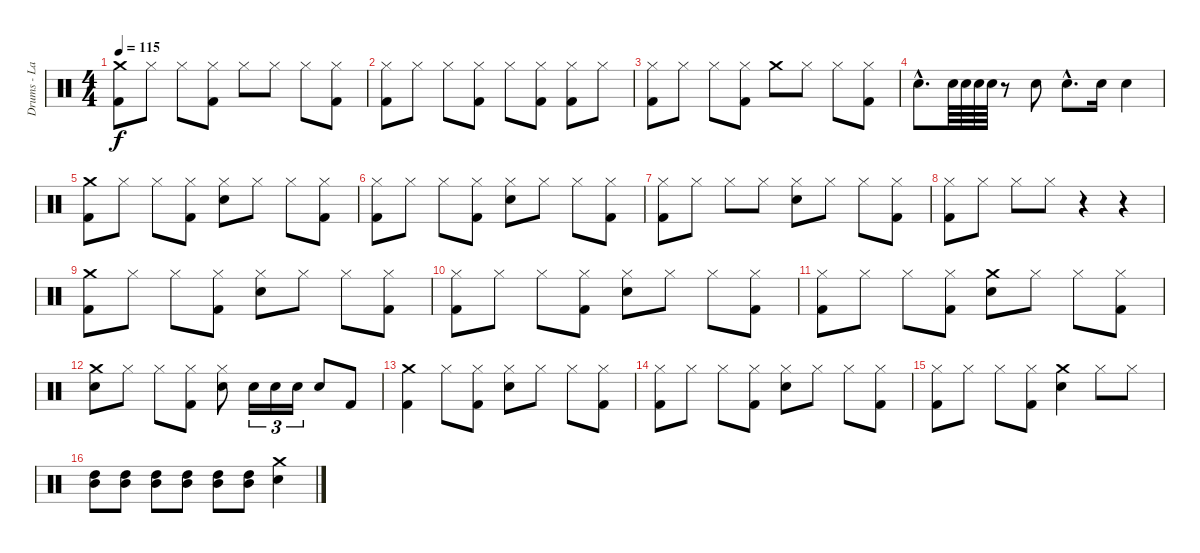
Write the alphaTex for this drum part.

\track ("Drums - Lars" "Drums - La") {instrument percussion}
\staff {score}
\articulation defaults
\ts (4 4)
\tempo 115
\clef neutral
\ks c
("Kick (hit) 2" "Crash medium (hit)").8{dy f} "Hi-Hat (closed)".8 "Hi-Hat (closed)".8 ("Kick (hit) 2" "Hi-Hat (closed)").8 "Hi-Hat (closed)".8 "Hi-Hat (closed)".8 "Hi-Hat (closed)".8 ("Kick (hit) 2" "Hi-Hat (closed)").8 |
("Kick (hit) 2" "Hi-Hat (closed)").8 "Hi-Hat (closed)".8 "Hi-Hat (closed)".8 ("Kick (hit) 2" "Hi-Hat (closed)").8 "Hi-Hat (closed)".8 ("Kick (hit) 2" "Hi-Hat (closed)").8 ("Kick (hit) 2" "Hi-Hat (closed)").8 "Hi-Hat (closed)".8 |
("Kick (hit) 2" "Hi-Hat (closed)").8 "Hi-Hat (closed)".8 "Hi-Hat (closed)".8 ("Kick (hit) 2" "Hi-Hat (closed)").8 "Crash medium (hit)".8 "Hi-Hat (closed)".8 "Hi-Hat (closed)".8 ("Kick (hit) 2" "Hi-Hat (closed)").8 |
"Snare (hit) 2"{hac}.8{d} "Snare (hit) 2".64 "Snare (hit) 2".64 "Snare (hit) 2".64 "Snare (hit) 2".64 r.8 "Snare (hit) 2".8 "Snare (hit) 2"{hac}.8{d} "Snare (hit) 2".16 "Snare (hit) 2".4 |
("Crash medium (hit)" "Kick (hit) 2").8 "Hi-Hat (closed)".8 "Hi-Hat (closed)".8 ("Kick (hit) 2" "Hi-Hat (closed)").8 ("Snare (hit) 2" "Hi-Hat (closed)").8 "Hi-Hat (closed)".8 "Hi-Hat (closed)".8 ("Kick (hit) 2" "Hi-Hat (closed)").8 |
("Hi-Hat (closed)" "Kick (hit) 2").8 "Hi-Hat (closed)".8 "Hi-Hat (closed)".8 ("Kick (hit) 2" "Hi-Hat (closed)").8 ("Snare (hit) 2" "Hi-Hat (closed)").8 "Hi-Hat (closed)".8 "Hi-Hat (closed)".8 ("Kick (hit) 2" "Hi-Hat (closed)").8 |
("Hi-Hat (closed)" "Kick (hit) 2").8 "Hi-Hat (closed)".8 "Hi-Hat (closed)".8 "Hi-Hat (closed)".8 ("Snare (hit) 2" "Hi-Hat (closed)").8 "Hi-Hat (closed)".8 "Hi-Hat (closed)".8 ("Kick (hit) 2" "Hi-Hat (closed)").8 |
("Hi-Hat (closed)" "Kick (hit) 2").8 "Hi-Hat (closed)".8 "Hi-Hat (closed)".8 "Hi-Hat (closed)".8 r.4 r.4 |
("Kick (hit) 2" "Crash medium (hit)").8 "Hi-Hat (closed)".8 "Hi-Hat (closed)".8 ("Kick (hit) 2" "Hi-Hat (closed)").8 ("Snare (hit) 2" "Hi-Hat (closed)").8 "Hi-Hat (closed)".8 "Hi-Hat (closed)".8 ("Kick (hit) 2" "Hi-Hat (closed)").8 |
("Hi-Hat (closed)" "Kick (hit) 2").8 "Hi-Hat (closed)".8 "Hi-Hat (closed)".8 ("Kick (hit) 2" "Hi-Hat (closed)").8 ("Snare (hit) 2" "Hi-Hat (closed)").8 "Hi-Hat (closed)".8 "Hi-Hat (closed)".8 ("Kick (hit) 2" "Hi-Hat (closed)").8 |
("Hi-Hat (closed)" "Kick (hit) 2").8 "Hi-Hat (closed)".8 "Hi-Hat (closed)".8 ("Kick (hit) 2" "Hi-Hat (closed)").8 ("Crash medium (hit)" "Snare (hit) 2").8 "Hi-Hat (closed)".8 "Hi-Hat (closed)".8 ("Kick (hit) 2" "Hi-Hat (closed)").8 |
("Snare (hit) 2" "Crash medium (hit)").8 "Hi-Hat (closed)".8 "Hi-Hat (closed)".8 ("Kick (hit) 2" "Hi-Hat (closed)").8 ("Snare (hit) 2" "Hi-Hat (closed)").8 "Snare (hit) 2".16{tu (3 2)} "Snare (hit) 2".16{tu (3 2)} "Snare (hit) 2".16{tu (3 2)} "Snare (hit) 2".8 "Kick (hit) 2".8 |
("Kick (hit) 2" "Crash medium (hit)").4 "Hi-Hat (closed)".8 ("Kick (hit) 2" "Hi-Hat (closed)").8 ("Snare (hit) 2" "Hi-Hat (closed)").8 "Hi-Hat (closed)".8 "Hi-Hat (closed)".8 ("Kick (hit) 2" "Hi-Hat (closed)").8 |
("Kick (hit) 2" "Hi-Hat (closed)").8 "Hi-Hat (closed)".8 "Hi-Hat (closed)".8 ("Kick (hit) 2" "Hi-Hat (closed)").8 ("Snare (hit) 2" "Hi-Hat (closed)").8 "Hi-Hat (closed)".8 "Hi-Hat (closed)".8 ("Kick (hit) 2" "Hi-Hat (closed)").8 |
("Hi-Hat (closed)" "Kick (hit) 2").8 "Hi-Hat (closed)".8 "Hi-Hat (closed)".8 ("Kick (hit) 2" "Hi-Hat (closed)").8 ("Crash medium (hit)" "Snare (hit) 2").4 "Hi-Hat (closed)".8 "Hi-Hat (closed)".8 |
("High Tom (hit)" "Mid Tom (hit)").8 ("Mid Tom (hit)" "High Tom (hit)").8 ("Mid Tom (hit)" "High Tom (hit)").8 ("Mid Tom (hit)" "High Tom (hit)").8 ("Mid Tom (hit)" "High Tom (hit)").8 ("Mid Tom (hit)" "High Tom (hit)").8 ("Snare (hit) 2" "Crash medium (hit)").4
